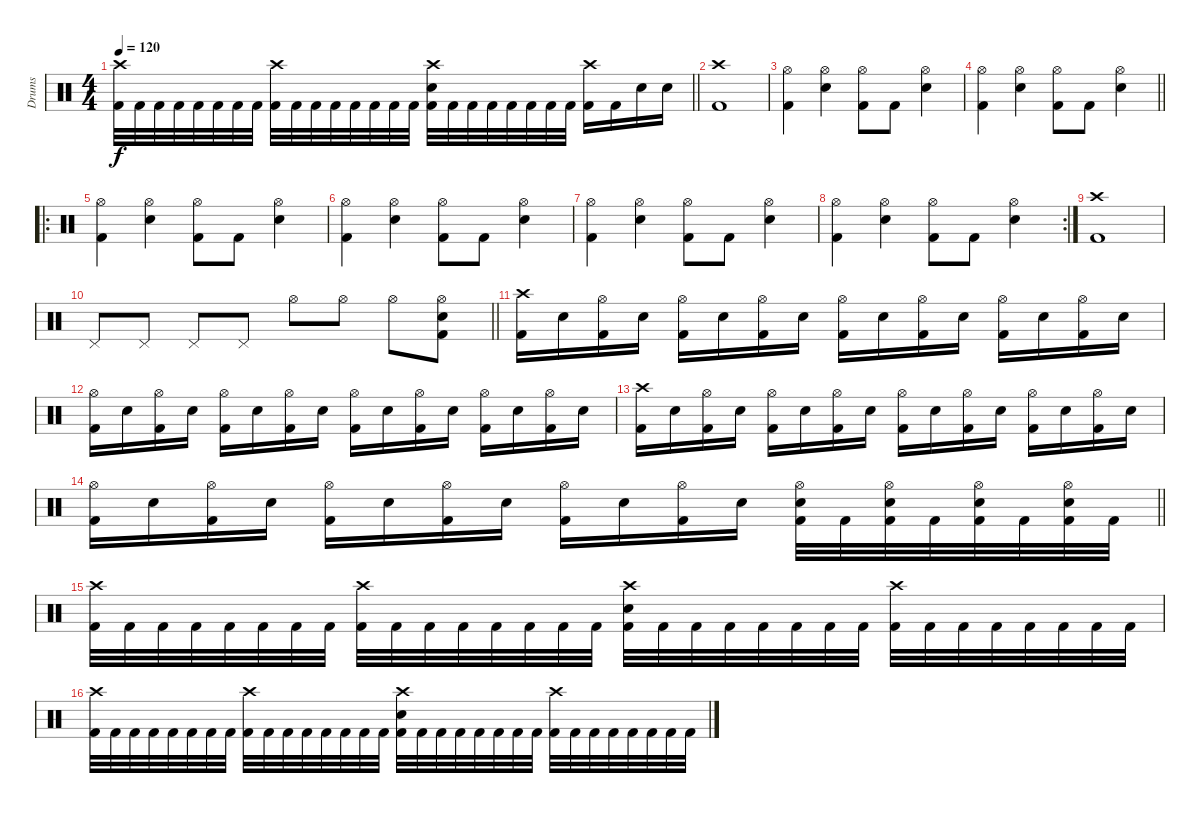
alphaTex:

\track ("Drums" "Drums") {instrument percussion}
\staff
\articulation defaults
\ts (4 4)
\tempo 120
\clef neutral
\barLineRight lightlight
\ks c
("Crash high (hit)" "Kick (hit) 2").32{dy f} "Kick (hit) 2".32 "Kick (hit) 2".32 "Kick (hit) 2".32 "Kick (hit) 2".32 "Kick (hit) 2".32 "Kick (hit) 2".32 "Kick (hit) 2".32 ("Crash high (hit)" "Kick (hit) 2").32 "Kick (hit) 2".32 "Kick (hit) 2".32 "Kick (hit) 2".32 "Kick (hit) 2".32 "Kick (hit) 2".32 "Kick (hit) 2".32 "Kick (hit) 2".32 ("Crash high (hit)" "Electric Snare (hit)" "Kick (hit) 2").32 "Kick (hit) 2".32 "Kick (hit) 2".32 "Kick (hit) 2".32 "Kick (hit) 2".32 "Kick (hit) 2".32 "Kick (hit) 2".32 "Kick (hit) 2".32 ("Crash high (hit)" "Kick (hit) 2").16 "Kick (hit) 2".16 "Electric Snare (hit)".16 "Electric Snare (hit)".16 |
\section ("" "")
("Crash high (hit)" "Kick (hit) 2").1 |
("Hi-Hat (open)" "Kick (hit) 2").4 ("Hi-Hat (open)" "Electric Snare (hit)").4 ("Hi-Hat (open)" "Kick (hit) 2").8 "Kick (hit) 2".8 ("Hi-Hat (open)" "Electric Snare (hit)").4 |
\barLineRight lightlight
("Hi-Hat (open)" "Kick (hit) 2").4 ("Hi-Hat (open)" "Electric Snare (hit)").4 ("Hi-Hat (open)" "Kick (hit) 2").8 "Kick (hit) 2".8 ("Hi-Hat (open)" "Electric Snare (hit)").4 |
\ro
\section ("" "")
("Hi-Hat (open)" "Kick (hit) 2").4 ("Hi-Hat (open)" "Electric Snare (hit)").4 ("Hi-Hat (open)" "Kick (hit) 2").8 "Kick (hit) 2".8 ("Hi-Hat (open)" "Electric Snare (hit)").4 |
("Hi-Hat (open)" "Kick (hit) 2").4 ("Hi-Hat (open)" "Electric Snare (hit)").4 ("Hi-Hat (open)" "Kick (hit) 2").8 "Kick (hit) 2".8 ("Hi-Hat (open)" "Electric Snare (hit)").4 |
("Hi-Hat (open)" "Kick (hit) 2").4 ("Hi-Hat (open)" "Electric Snare (hit)").4 ("Hi-Hat (open)" "Kick (hit) 2").8 "Kick (hit) 2".8 ("Hi-Hat (open)" "Electric Snare (hit)").4 |
\rc 2
("Hi-Hat (open)" "Kick (hit) 2").4 ("Hi-Hat (open)" "Electric Snare (hit)").4 ("Hi-Hat (open)" "Kick (hit) 2").8 "Kick (hit) 2".8 ("Hi-Hat (open)" "Electric Snare (hit)").4 |
("Crash high (hit)" "Kick (hit) 2").1 |
\barLineRight lightlight "Pedal Hi-Hat (hit)".8 "Pedal Hi-Hat (hit)".8 "Pedal Hi-Hat (hit)".8 "Pedal Hi-Hat (hit)".8 "Hi-Hat (open)".8 "Hi-Hat (open)".8 "Hi-Hat (open)".8
("Hi-Hat (open)" "Electric Snare (hit)" "Kick (hit) 2").8 |
("Crash high (hit)" "Kick (hit) 2").16 "Electric Snare (hit)".16 ("Hi-Hat (open)" "Kick (hit) 2").16 "Electric Snare (hit)".16 ("Hi-Hat (open)" "Kick (hit) 2").16 "Electric Snare (hit)".16 ("Hi-Hat (open)" "Kick (hit) 2").16 "Electric Snare (hit)".16 ("Hi-Hat (open)" "Kick (hit) 2").16 "Electric Snare (hit)".16 ("Hi-Hat (open)" "Kick (hit) 2").16 "Electric Snare (hit)".16 ("Hi-Hat (open)" "Kick (hit) 2").16 "Electric Snare (hit)".16 ("Hi-Hat (open)" "Kick (hit) 2").16 "Electric Snare (hit)".16 |
("Hi-Hat (open)" "Kick (hit) 2").16 "Electric Snare (hit)".16 ("Hi-Hat (open)" "Kick (hit) 2").16 "Electric Snare (hit)".16 ("Hi-Hat (open)" "Kick (hit) 2").16 "Electric Snare (hit)".16 ("Hi-Hat (open)" "Kick (hit) 2").16 "Electric Snare (hit)".16 ("Hi-Hat (open)" "Kick (hit) 2").16 "Electric Snare (hit)".16 ("Hi-Hat (open)" "Kick (hit) 2").16 "Electric Snare (hit)".16 ("Hi-Hat (open)" "Kick (hit) 2").16 "Electric Snare (hit)".16 ("Hi-Hat (open)" "Kick (hit) 2").16 "Electric Snare (hit)".16 |
("Crash high (hit)" "Kick (hit) 2").16 "Electric Snare (hit)".16 ("Hi-Hat (open)" "Kick (hit) 2").16 "Electric Snare (hit)".16 ("Hi-Hat (open)" "Kick (hit) 2").16 "Electric Snare (hit)".16 ("Hi-Hat (open)" "Kick (hit) 2").16 "Electric Snare (hit)".16 ("Hi-Hat (open)" "Kick (hit) 2").16 "Electric Snare (hit)".16 ("Hi-Hat (open)" "Kick (hit) 2").16 "Electric Snare (hit)".16 ("Hi-Hat (open)" "Kick (hit) 2").16 "Electric Snare (hit)".16 ("Hi-Hat (open)" "Kick (hit) 2").16 "Electric Snare (hit)".16 |
\barLineRight lightlight
("Hi-Hat (open)" "Kick (hit) 2").16 "Electric Snare (hit)".16 ("Hi-Hat (open)" "Kick (hit) 2").16 "Electric Snare (hit)".16 ("Hi-Hat (open)" "Kick (hit) 2").16 "Electric Snare (hit)".16 ("Hi-Hat (open)" "Kick (hit) 2").16 "Electric Snare (hit)".16 ("Hi-Hat (open)" "Kick (hit) 2").16 "Electric Snare (hit)".16 ("Hi-Hat (open)" "Kick (hit) 2").16 "Electric Snare (hit)".16 ("Hi-Hat (open)" "Electric Snare (hit)" "Kick (hit) 2").32 "Kick (hit) 2".32 ("Hi-Hat (open)" "Electric Snare (hit)" "Kick (hit) 2").32 "Kick (hit) 2".32 ("Hi-Hat (open)" "Electric Snare (hit)" "Kick (hit) 2").32 "Kick (hit) 2".32 ("Hi-Hat (open)" "Electric Snare (hit)" "Kick (hit) 2").32 "Kick (hit) 2".32 |
("Crash high (hit)" "Kick (hit) 2").32 "Kick (hit) 2".32 "Kick (hit) 2".32 "Kick (hit) 2".32 "Kick (hit) 2".32 "Kick (hit) 2".32 "Kick (hit) 2".32 "Kick (hit) 2".32 ("Crash high (hit)" "Kick (hit) 2").32 "Kick (hit) 2".32 "Kick (hit) 2".32 "Kick (hit) 2".32 "Kick (hit) 2".32 "Kick (hit) 2".32 "Kick (hit) 2".32 "Kick (hit) 2".32 ("Crash high (hit)" "Electric Snare (hit)" "Kick (hit) 2").32 "Kick (hit) 2".32 "Kick (hit) 2".32 "Kick (hit) 2".32 "Kick (hit) 2".32 "Kick (hit) 2".32 "Kick (hit) 2".32 "Kick (hit) 2".32 ("Crash high (hit)" "Kick (hit) 2").32 "Kick (hit) 2".32 "Kick (hit) 2".32 "Kick (hit) 2".32 "Kick (hit) 2".32 "Kick (hit) 2".32 "Kick (hit) 2".32 "Kick (hit) 2".32 |
("Crash high (hit)" "Kick (hit) 2").32 "Kick (hit) 2".32 "Kick (hit) 2".32 "Kick (hit) 2".32 "Kick (hit) 2".32 "Kick (hit) 2".32 "Kick (hit) 2".32 "Kick (hit) 2".32 ("Crash high (hit)" "Kick (hit) 2").32 "Kick (hit) 2".32 "Kick (hit) 2".32 "Kick (hit) 2".32 "Kick (hit) 2".32 "Kick (hit) 2".32 "Kick (hit) 2".32 "Kick (hit) 2".32 ("Crash high (hit)" "Electric Snare (hit)" "Kick (hit) 2").32 "Kick (hit) 2".32 "Kick (hit) 2".32 "Kick (hit) 2".32 "Kick (hit) 2".32 "Kick (hit) 2".32 "Kick (hit) 2".32 "Kick (hit) 2".32 ("Crash high (hit)" "Kick (hit) 2").32 "Kick (hit) 2".32 "Kick (hit) 2".32 "Kick (hit) 2".32 "Kick (hit) 2".32 "Kick (hit) 2".32 "Kick (hit) 2".32 "Kick (hit) 2".32
